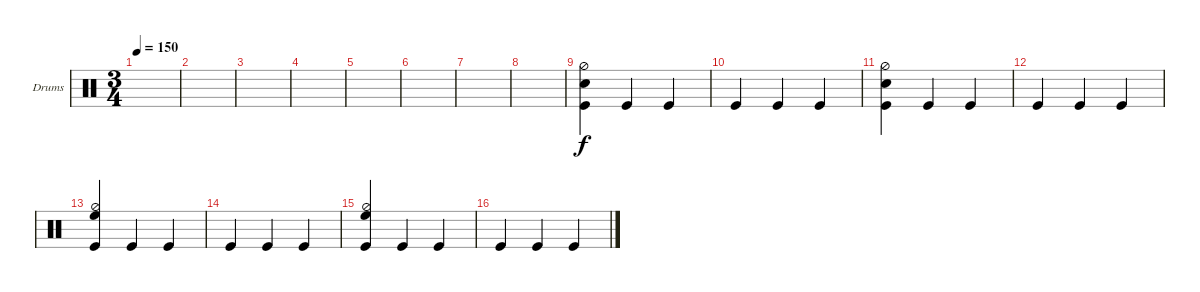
\defaultSystemsLayout 4
\bracketExtendMode groupsimilarinstruments
\firstSystemTrackNameOrientation horizontal
\otherSystemsTrackNameOrientation horizontal
\track ("Drumkit" "Drums") {instrument percussion}
\staff {score}
\articulation defaults
\ts (3 4)
\tempo 150
\clef neutral
\ks c
|
|
|
|
|
|
|
|
("Kick (hit)" "Snare (hit) 2" "Hi-Hat (half)").4 "Kick (hit)".4 "Kick (hit)".4 |
"Kick (hit)".4 "Kick (hit)".4 "Kick (hit)".4 |
("Kick (hit)" "Snare (hit) 2" "Hi-Hat (half)").4 "Kick (hit)".4 "Kick (hit)".4 |
"Kick (hit)".4 "Kick (hit)".4 "Kick (hit)".4 |
("Kick (hit)" "High Floor Tom (hit)" "Hi-Hat (half)").4 "Kick (hit)".4 "Kick (hit)".4 |
"Kick (hit)".4 "Kick (hit)".4 "Kick (hit)".4 |
("Kick (hit)" "High Floor Tom (hit)" "Hi-Hat (half)").4 "Kick (hit)".4 "Kick (hit)".4 |
"Kick (hit)".4 "Kick (hit)".4 "Kick (hit)".4
